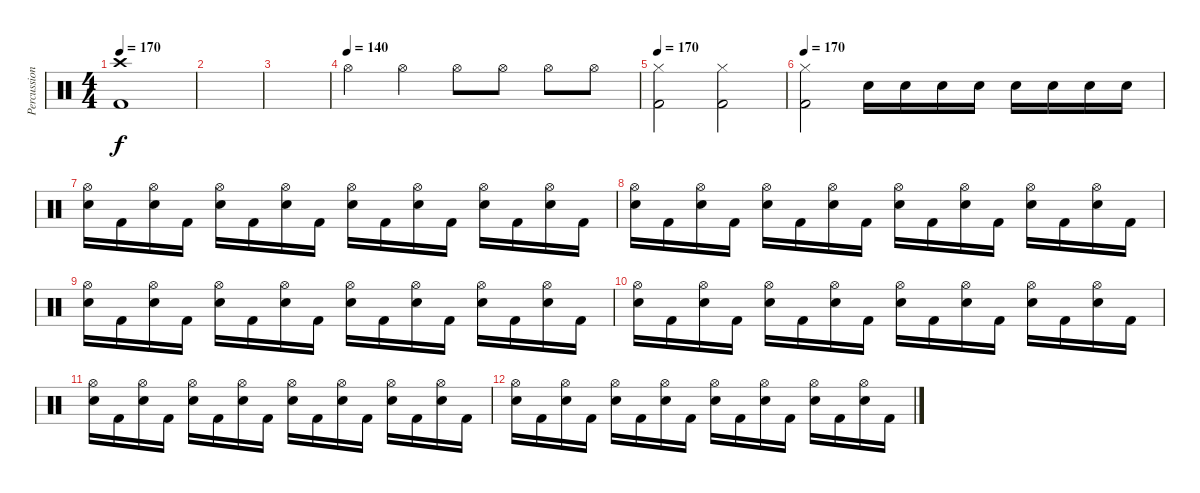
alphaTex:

\track ("Percussion" "Percussion") {instrument percussion}
\staff {score}
\articulation defaults
\ts (4 4)
\tempo 170
\clef neutral
\ks c
("Crash high (hit)" "Kick (hit) 2").1{dy f} |
|
|
\tempo (140)
"Hi-Hat (open)".4 "Hi-Hat (open)".4 "Hi-Hat (open)".8 "Hi-Hat (open)".8 "Hi-Hat (open)".8 "Hi-Hat (open)".8 |
\tempo 170
("Hi-Hat (closed)" "Kick (hit) 2").2 ("Hi-Hat (closed)" "Kick (hit) 2").2 |
\tempo 170
("Hi-Hat (closed)" "Kick (hit) 2").2 "Snare (hit) 2".16 "Snare (hit) 2".16 "Snare (hit) 2".16 "Snare (hit) 2".16 "Snare (hit) 2".16 "Snare (hit) 2".16 "Snare (hit) 2".16 "Snare (hit) 2".16 |
("Hi-Hat (open)" "Electric Snare (hit)").16 "Kick (hit) 2".16 ("Hi-Hat (open)" "Electric Snare (hit)").16 "Kick (hit) 2".16 ("Hi-Hat (open)" "Electric Snare (hit)").16 "Kick (hit) 2".16 ("Hi-Hat (open)" "Electric Snare (hit)").16 "Kick (hit) 2".16 ("Hi-Hat (open)" "Electric Snare (hit)").16 "Kick (hit) 2".16 ("Hi-Hat (open)" "Electric Snare (hit)").16 "Kick (hit) 2".16 ("Hi-Hat (open)" "Electric Snare (hit)").16 "Kick (hit) 2".16 ("Hi-Hat (open)" "Electric Snare (hit)").16 "Kick (hit) 2".16 |
("Hi-Hat (open)" "Electric Snare (hit)").16 "Kick (hit) 2".16 ("Hi-Hat (open)" "Electric Snare (hit)").16 "Kick (hit) 2".16 ("Hi-Hat (open)" "Electric Snare (hit)").16 "Kick (hit) 2".16 ("Hi-Hat (open)" "Electric Snare (hit)").16 "Kick (hit) 2".16 ("Hi-Hat (open)" "Electric Snare (hit)").16 "Kick (hit) 2".16 ("Hi-Hat (open)" "Electric Snare (hit)").16 "Kick (hit) 2".16 ("Hi-Hat (open)" "Electric Snare (hit)").16 "Kick (hit) 2".16 ("Hi-Hat (open)" "Electric Snare (hit)").16 "Kick (hit) 2".16 |
("Hi-Hat (open)" "Electric Snare (hit)").16 "Kick (hit) 2".16 ("Hi-Hat (open)" "Electric Snare (hit)").16 "Kick (hit) 2".16 ("Hi-Hat (open)" "Electric Snare (hit)").16 "Kick (hit) 2".16 ("Hi-Hat (open)" "Electric Snare (hit)").16 "Kick (hit) 2".16 ("Hi-Hat (open)" "Electric Snare (hit)").16 "Kick (hit) 2".16 ("Hi-Hat (open)" "Electric Snare (hit)").16 "Kick (hit) 2".16 ("Hi-Hat (open)" "Electric Snare (hit)").16 "Kick (hit) 2".16 ("Hi-Hat (open)" "Electric Snare (hit)").16 "Kick (hit) 2".16 |
("Hi-Hat (open)" "Electric Snare (hit)").16 "Kick (hit) 2".16 ("Hi-Hat (open)" "Electric Snare (hit)").16 "Kick (hit) 2".16 ("Hi-Hat (open)" "Electric Snare (hit)").16 "Kick (hit) 2".16 ("Hi-Hat (open)" "Electric Snare (hit)").16 "Kick (hit) 2".16 ("Hi-Hat (open)" "Electric Snare (hit)").16 "Kick (hit) 2".16 ("Hi-Hat (open)" "Electric Snare (hit)").16 "Kick (hit) 2".16 ("Hi-Hat (open)" "Electric Snare (hit)").16 "Kick (hit) 2".16 ("Hi-Hat (open)" "Electric Snare (hit)").16 "Kick (hit) 2".16 |
("Hi-Hat (open)" "Electric Snare (hit)").16 "Kick (hit) 2".16 ("Hi-Hat (open)" "Electric Snare (hit)").16 "Kick (hit) 2".16 ("Hi-Hat (open)" "Electric Snare (hit)").16 "Kick (hit) 2".16 ("Hi-Hat (open)" "Electric Snare (hit)").16 "Kick (hit) 2".16 ("Hi-Hat (open)" "Electric Snare (hit)").16 "Kick (hit) 2".16 ("Hi-Hat (open)" "Electric Snare (hit)").16 "Kick (hit) 2".16 ("Hi-Hat (open)" "Electric Snare (hit)").16 "Kick (hit) 2".16 ("Hi-Hat (open)" "Electric Snare (hit)").16 "Kick (hit) 2".16 |
("Hi-Hat (open)" "Electric Snare (hit)").16 "Kick (hit) 2".16 ("Hi-Hat (open)" "Electric Snare (hit)").16 "Kick (hit) 2".16 ("Hi-Hat (open)" "Electric Snare (hit)").16 "Kick (hit) 2".16 ("Hi-Hat (open)" "Electric Snare (hit)").16 "Kick (hit) 2".16 ("Hi-Hat (open)" "Electric Snare (hit)").16 "Kick (hit) 2".16 ("Hi-Hat (open)" "Electric Snare (hit)").16 "Kick (hit) 2".16 ("Hi-Hat (open)" "Electric Snare (hit)").16 "Kick (hit) 2".16 ("Hi-Hat (open)" "Electric Snare (hit)").16 "Kick (hit) 2".16
